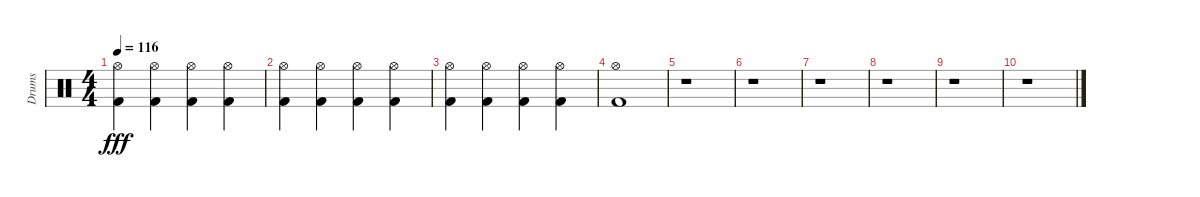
\track ("Drums" "Drums") {instrument percussion}
\staff {score}
\articulation defaults
\ts (4 4)
\tempo 116
\clef neutral
\ks c
("Kick (hit) 2" "Hi-Hat (open)").4{dy fff} ("Kick (hit) 2" "Hi-Hat (open)").4 ("Kick (hit) 2" "Hi-Hat (open)").4 ("Kick (hit) 2" "Hi-Hat (open)").4 |
("Kick (hit) 2" "Hi-Hat (open)").4 ("Kick (hit) 2" "Hi-Hat (open)").4 ("Kick (hit) 2" "Hi-Hat (open)").4 ("Kick (hit) 2" "Hi-Hat (open)").4 |
("Kick (hit) 2" "Hi-Hat (open)").4 ("Kick (hit) 2" "Hi-Hat (open)").4 ("Kick (hit) 2" "Hi-Hat (open)").4 ("Kick (hit) 2" "Hi-Hat (open)").4 |
("Kick (hit) 2" "Hi-Hat (open)").1 |
r.1 |
r.1 |
r.1 |
r.1 |
r.1 |
r.1
